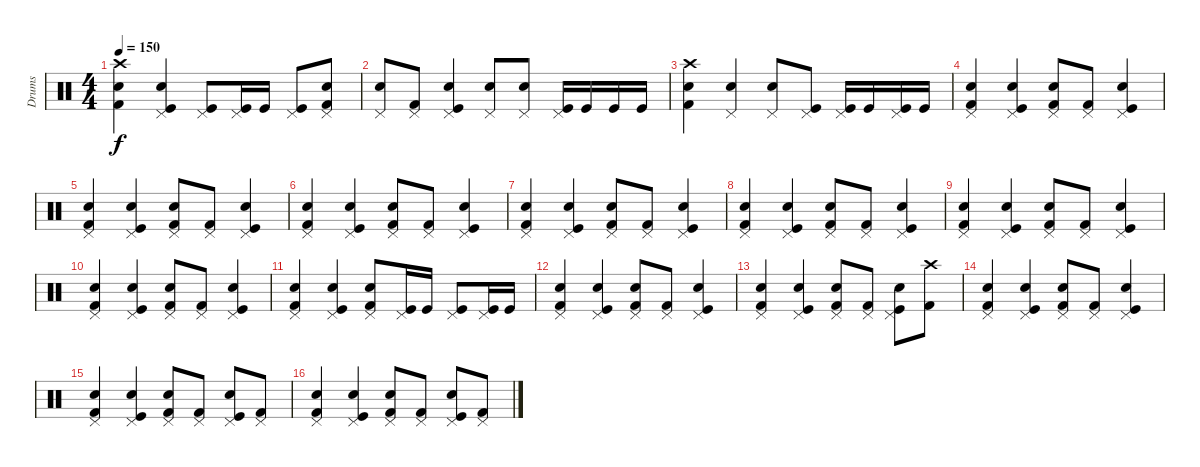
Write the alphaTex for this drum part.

\track ("Drums" "Drums") {instrument percussion}
\staff {score}
\articulation defaults
\ts (4 4)
\tempo 150
\clef neutral
\ks c
("Kick (hit) 2" "Electric Snare (hit)" "Crash high (hit)").4{dy f} ("Kick (hit)" "Electric Snare (hit)" "Pedal Hi-Hat (hit)").4 ("Kick (hit)" "Pedal Hi-Hat (hit)").8 ("Kick (hit)" "Pedal Hi-Hat (hit)").16 "Kick (hit)".16 ("Kick (hit)" "Pedal Hi-Hat (hit)").8 ("Kick (hit) 2" "Electric Snare (hit)" "Pedal Hi-Hat (hit)").8 |
("Electric Snare (hit)" "Pedal Hi-Hat (hit)").8 ("Kick (hit) 2" "Pedal Hi-Hat (hit)").8 ("Kick (hit)" "Electric Snare (hit)" "Pedal Hi-Hat (hit)").4 ("Electric Snare (hit)" "Pedal Hi-Hat (hit)").8 ("Electric Snare (hit)" "Pedal Hi-Hat (hit)").8 ("Kick (hit)" "Pedal Hi-Hat (hit)").16 "Kick (hit)".16 "Kick (hit)".16 "Kick (hit)".16 |
("Kick (hit) 2" "Electric Snare (hit)" "Crash high (hit)").4 ("Electric Snare (hit)" "Pedal Hi-Hat (hit)").4 ("Electric Snare (hit)" "Pedal Hi-Hat (hit)").8 ("Kick (hit)" "Pedal Hi-Hat (hit)").8 ("Kick (hit)" "Pedal Hi-Hat (hit)").16 "Kick (hit)".16 ("Kick (hit)" "Pedal Hi-Hat (hit)").16 "Kick (hit)".16 |
("Kick (hit) 2" "Electric Snare (hit)" "Pedal Hi-Hat (hit)").4 ("Kick (hit)" "Electric Snare (hit)" "Pedal Hi-Hat (hit)").4 ("Kick (hit) 2" "Electric Snare (hit)" "Pedal Hi-Hat (hit)").8 ("Kick (hit) 2" "Pedal Hi-Hat (hit)").8 ("Kick (hit)" "Electric Snare (hit)" "Pedal Hi-Hat (hit)").4 |
("Kick (hit) 2" "Electric Snare (hit)" "Pedal Hi-Hat (hit)").4 ("Kick (hit)" "Electric Snare (hit)" "Pedal Hi-Hat (hit)").4 ("Kick (hit) 2" "Electric Snare (hit)" "Pedal Hi-Hat (hit)").8 ("Kick (hit) 2" "Pedal Hi-Hat (hit)").8 ("Kick (hit)" "Electric Snare (hit)" "Pedal Hi-Hat (hit)").4 |
("Kick (hit) 2" "Electric Snare (hit)" "Pedal Hi-Hat (hit)").4 ("Kick (hit)" "Electric Snare (hit)" "Pedal Hi-Hat (hit)").4 ("Kick (hit) 2" "Electric Snare (hit)" "Pedal Hi-Hat (hit)").8 ("Kick (hit) 2" "Pedal Hi-Hat (hit)").8 ("Kick (hit)" "Electric Snare (hit)" "Pedal Hi-Hat (hit)").4 |
("Kick (hit) 2" "Electric Snare (hit)" "Pedal Hi-Hat (hit)").4 ("Kick (hit)" "Electric Snare (hit)" "Pedal Hi-Hat (hit)").4 ("Kick (hit) 2" "Electric Snare (hit)" "Pedal Hi-Hat (hit)").8 ("Kick (hit) 2" "Pedal Hi-Hat (hit)").8 ("Kick (hit)" "Electric Snare (hit)" "Pedal Hi-Hat (hit)").4 |
("Kick (hit) 2" "Electric Snare (hit)" "Pedal Hi-Hat (hit)").4 ("Kick (hit)" "Electric Snare (hit)" "Pedal Hi-Hat (hit)").4 ("Kick (hit) 2" "Electric Snare (hit)" "Pedal Hi-Hat (hit)").8 ("Kick (hit) 2" "Pedal Hi-Hat (hit)").8 ("Kick (hit)" "Electric Snare (hit)" "Pedal Hi-Hat (hit)").4 |
("Kick (hit) 2" "Electric Snare (hit)" "Pedal Hi-Hat (hit)").4 ("Kick (hit)" "Electric Snare (hit)" "Pedal Hi-Hat (hit)").4 ("Kick (hit) 2" "Electric Snare (hit)" "Pedal Hi-Hat (hit)").8 ("Kick (hit) 2" "Pedal Hi-Hat (hit)").8 ("Kick (hit)" "Electric Snare (hit)" "Pedal Hi-Hat (hit)").4 |
("Kick (hit) 2" "Electric Snare (hit)" "Pedal Hi-Hat (hit)").4 ("Kick (hit)" "Electric Snare (hit)" "Pedal Hi-Hat (hit)").4 ("Kick (hit) 2" "Electric Snare (hit)" "Pedal Hi-Hat (hit)").8 ("Kick (hit) 2" "Pedal Hi-Hat (hit)").8 ("Kick (hit)" "Electric Snare (hit)" "Pedal Hi-Hat (hit)").4 |
("Kick (hit) 2" "Electric Snare (hit)" "Pedal Hi-Hat (hit)").4 ("Kick (hit)" "Electric Snare (hit)" "Pedal Hi-Hat (hit)").4 ("Kick (hit) 2" "Electric Snare (hit)" "Pedal Hi-Hat (hit)").8 ("Kick (hit)" "Pedal Hi-Hat (hit)").16 "Kick (hit)".16 ("Kick (hit)" "Pedal Hi-Hat (hit)").8 ("Kick (hit)" "Pedal Hi-Hat (hit)").16 "Kick (hit)".16 |
("Kick (hit) 2" "Electric Snare (hit)" "Pedal Hi-Hat (hit)").4 ("Kick (hit)" "Electric Snare (hit)" "Pedal Hi-Hat (hit)").4 ("Kick (hit) 2" "Electric Snare (hit)" "Pedal Hi-Hat (hit)").8 ("Kick (hit) 2" "Pedal Hi-Hat (hit)").8 ("Kick (hit)" "Electric Snare (hit)" "Pedal Hi-Hat (hit)").4 |
("Kick (hit) 2" "Electric Snare (hit)" "Pedal Hi-Hat (hit)").4 ("Kick (hit)" "Electric Snare (hit)" "Pedal Hi-Hat (hit)").4 ("Kick (hit) 2" "Electric Snare (hit)" "Pedal Hi-Hat (hit)").8 ("Kick (hit) 2" "Pedal Hi-Hat (hit)").8 ("Kick (hit)" "Electric Snare (hit)" "Pedal Hi-Hat (hit)").8 ("Kick (hit) 2" "Crash high (hit)").8 |
("Kick (hit) 2" "Electric Snare (hit)" "Pedal Hi-Hat (hit)").4 ("Kick (hit)" "Electric Snare (hit)" "Pedal Hi-Hat (hit)").4 ("Kick (hit) 2" "Electric Snare (hit)" "Pedal Hi-Hat (hit)").8 ("Kick (hit) 2" "Pedal Hi-Hat (hit)").8 ("Kick (hit)" "Electric Snare (hit)" "Pedal Hi-Hat (hit)").4 |
("Kick (hit) 2" "Electric Snare (hit)" "Pedal Hi-Hat (hit)").4 ("Kick (hit)" "Electric Snare (hit)" "Pedal Hi-Hat (hit)").4 ("Kick (hit) 2" "Electric Snare (hit)" "Pedal Hi-Hat (hit)").8 ("Kick (hit) 2" "Pedal Hi-Hat (hit)").8 ("Kick (hit)" "Electric Snare (hit)" "Pedal Hi-Hat (hit)").8 ("Kick (hit) 2" "Pedal Hi-Hat (hit)").8 |
("Kick (hit) 2" "Electric Snare (hit)" "Pedal Hi-Hat (hit)").4 ("Kick (hit)" "Electric Snare (hit)" "Pedal Hi-Hat (hit)").4 ("Kick (hit) 2" "Electric Snare (hit)" "Pedal Hi-Hat (hit)").8 ("Kick (hit) 2" "Pedal Hi-Hat (hit)").8 ("Kick (hit)" "Electric Snare (hit)" "Pedal Hi-Hat (hit)").8 ("Kick (hit) 2" "Pedal Hi-Hat (hit)").8
